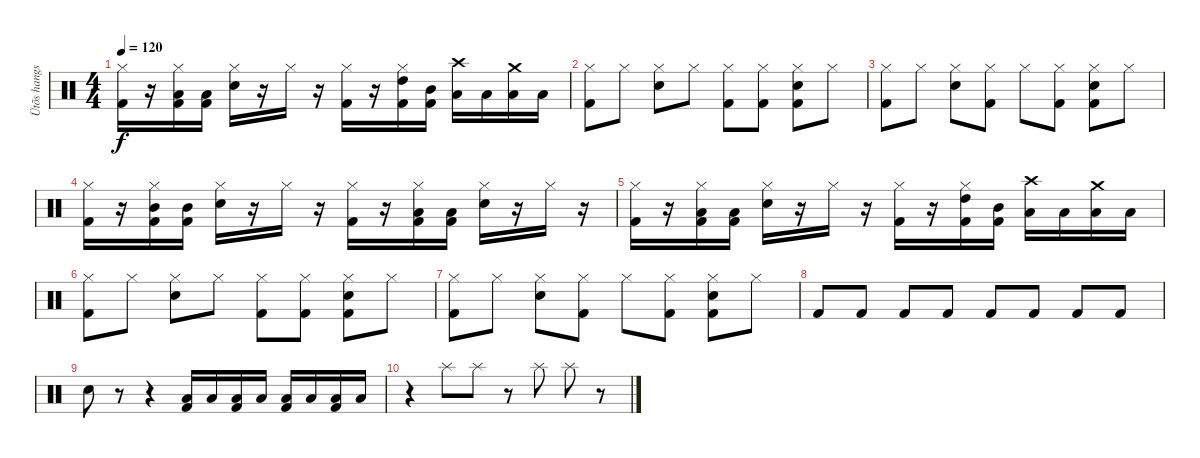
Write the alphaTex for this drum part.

\track ("Ütõs hangszer" "Ütõs hangs") {instrument percussion}
\staff {score}
\articulation defaults
\ts (4 4)
\tempo 120
\clef neutral
\ks c
("Hi-Hat (closed)" "Kick (hit) 2").16{dy f} r.16 ("Hi-Hat (closed)" "Low Floor Tom (hit)" "Kick (hit) 2").16 ("Low Floor Tom (hit)" "Kick (hit) 2").16 ("Hi-Hat (closed)" "Snare (hit) 2").16 r.16 "Hi-Hat (closed)".16 r.16 ("Hi-Hat (closed)" "Kick (hit) 2").16 r.16 ("Hi-Hat (closed)" "High Tom (hit)" "Kick (hit) 2").16 ("Mid Tom (hit)" "Kick (hit) 2").16 ("Crash high (hit)" "Low Tom (hit)").16 "Low Floor Tom (hit)".16 ("Crash medium (hit)" "Low Tom (hit)").16 "Low Tom (hit)".16 |
("Hi-Hat (closed)" "Kick (hit) 2").8 "Hi-Hat (closed)".8 ("Hi-Hat (closed)" "Snare (hit) 2").8 "Hi-Hat (closed)".8 ("Hi-Hat (closed)" "Kick (hit) 2").8 ("Hi-Hat (closed)" "Kick (hit) 2").8 ("Hi-Hat (closed)" "Snare (hit) 2" "Kick (hit) 2").8 "Hi-Hat (closed)".8 |
("Hi-Hat (closed)" "Kick (hit) 2").8 "Hi-Hat (closed)".8 ("Hi-Hat (closed)" "Snare (hit) 2").8 ("Hi-Hat (closed)" "Kick (hit) 2").8 "Hi-Hat (closed)".8 ("Hi-Hat (closed)" "Kick (hit) 2").8 ("Hi-Hat (closed)" "Snare (hit) 2" "Kick (hit) 2").8 "Hi-Hat (closed)".8 |
("Hi-Hat (closed)" "Kick (hit) 2").16 r.16 ("Hi-Hat (closed)" "Mid Tom (hit)" "Kick (hit) 2").16 ("Mid Tom (hit)" "Kick (hit) 2").16 ("Hi-Hat (closed)" "Snare (hit) 2").16 r.16 "Hi-Hat (closed)".16 r.16 ("Hi-Hat (closed)" "Kick (hit) 2").16 r.16 ("Hi-Hat (closed)" "Low Tom (hit)" "Kick (hit) 2").16 ("Low Tom (hit)" "Kick (hit) 2").16 ("Hi-Hat (closed)" "Snare (hit) 2").16 r.16 "Hi-Hat (closed)".16 r.16 |
("Hi-Hat (closed)" "Kick (hit) 2").16 r.16 ("Hi-Hat (closed)" "Low Floor Tom (hit)" "Kick (hit) 2").16 ("Low Floor Tom (hit)" "Kick (hit) 2").16 ("Hi-Hat (closed)" "Snare (hit) 2").16 r.16 "Hi-Hat (closed)".16 r.16 ("Hi-Hat (closed)" "Kick (hit) 2").16 r.16 ("Hi-Hat (closed)" "High Tom (hit)" "Kick (hit) 2").16 ("Mid Tom (hit)" "Kick (hit) 2").16 ("Crash high (hit)" "Low Tom (hit)").16 "Low Floor Tom (hit)".16 ("Crash medium (hit)" "Low Tom (hit)").16 "Low Tom (hit)".16 |
("Hi-Hat (closed)" "Kick (hit) 2").8 "Hi-Hat (closed)".8 ("Hi-Hat (closed)" "Snare (hit) 2").8 "Hi-Hat (closed)".8 ("Hi-Hat (closed)" "Kick (hit) 2").8 ("Hi-Hat (closed)" "Kick (hit) 2").8 ("Hi-Hat (closed)" "Snare (hit) 2" "Kick (hit) 2").8 "Hi-Hat (closed)".8 |
("Hi-Hat (closed)" "Kick (hit) 2").8 "Hi-Hat (closed)".8 ("Hi-Hat (closed)" "Snare (hit) 2").8 ("Hi-Hat (closed)" "Kick (hit) 2").8 "Hi-Hat (closed)".8 ("Hi-Hat (closed)" "Kick (hit) 2").8 ("Hi-Hat (closed)" "Snare (hit) 2" "Kick (hit) 2").8 "Hi-Hat (closed)".8 |
"Kick (hit) 2".8 "Kick (hit) 2".8 "Kick (hit) 2".8 "Kick (hit) 2".8 "Kick (hit) 2".8 "Kick (hit) 2".8 "Kick (hit) 2".8 "Kick (hit) 2".8 |
"Snare (hit) 2".8 r.8 r.4 ("Low Floor Tom (hit)" "Kick (hit) 2").16 "Low Floor Tom (hit)".16 ("Low Floor Tom (hit)" "Kick (hit) 2").16 "Low Floor Tom (hit)".16 ("Low Floor Tom (hit)" "Kick (hit) 2").16 "Low Floor Tom (hit)".16 ("Low Floor Tom (hit)" "Kick (hit) 2").16 "Low Floor Tom (hit)".16 |
r.4 "Splash (hit)".8 "Splash (hit)".8 r.8 "Splash (hit)".8 "Splash (hit)".8 r.8
